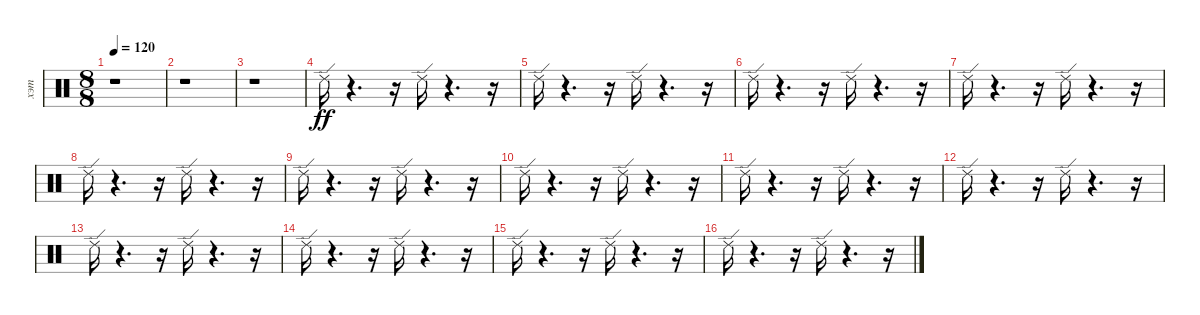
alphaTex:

\track ("хэт" "хэт") {instrument percussion}
\staff {score}
\articulation defaults
\ts (8 8)
\tempo 120
\clef neutral
\ks c
r.1{dy ff} |
r.1 |
r.1 |
"Ride (edge) 2".16 r.4{d} r.16 "Ride (edge) 2".16 r.4{d} r.16 |
"Ride (edge) 2".16 r.4{d} r.16 "Ride (edge) 2".16 r.4{d} r.16 |
"Ride (edge) 2".16 r.4{d} r.16 "Ride (edge) 2".16 r.4{d} r.16 |
"Ride (edge) 2".16 r.4{d} r.16 "Ride (edge) 2".16 r.4{d} r.16 |
"Ride (edge) 2".16 r.4{d} r.16 "Ride (edge) 2".16 r.4{d} r.16 |
"Ride (edge) 2".16 r.4{d} r.16 "Ride (edge) 2".16 r.4{d} r.16 |
"Ride (edge) 2".16 r.4{d} r.16 "Ride (edge) 2".16 r.4{d} r.16 |
"Ride (edge) 2".16 r.4{d} r.16 "Ride (edge) 2".16 r.4{d} r.16 |
"Ride (edge) 2".16 r.4{d} r.16 "Ride (edge) 2".16{volume 16} r.4{d} r.16 |
"Ride (edge) 2".16{volume 15} r.4{d} r.16 "Ride (edge) 2".16{volume 15} r.4{d} r.16 |
"Ride (edge) 2".16{volume 13} r.4{d} r.16 "Ride (edge) 2".16{volume 12} r.4{d} r.16 |
"Ride (edge) 2".16{volume 11} r.4{d} r.16 "Ride (edge) 2".16{volume 10} r.4{d} r.16 |
"Ride (edge) 2".16{volume 9} r.4{d} r.16 "Ride (edge) 2".16{volume 8} r.4{d} r.16
